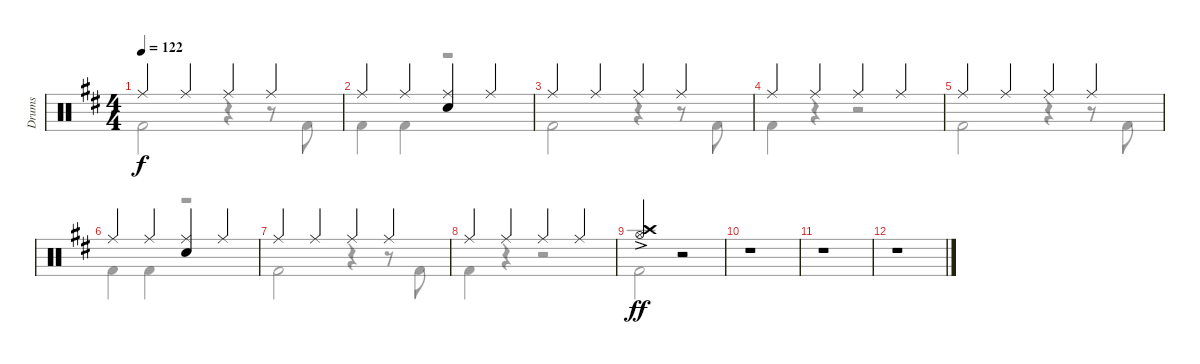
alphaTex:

\track ("Drums" "Drums") {instrument percussion}
\staff {score}
\articulation defaults
\voice
\ts (4 4)
\tempo 122
\clef neutral
\ks d "Ride (middle)".4{dy f} "Ride (middle)".4 "Ride (middle)".4 "Ride (middle)".4
|
"Ride (middle)".4 "Ride (middle)".4 ("Ride (middle)" "Electric Snare (hit)").4 "Ride (middle)".4 |
"Ride (middle)".4 "Ride (middle)".4 "Ride (middle)".4 "Ride (middle)".4 |
"Ride (middle)".4 "Ride (middle)".4 "Ride (middle)".4 "Ride (middle)".4 |
"Ride (middle)".4 "Ride (middle)".4 "Ride (middle)".4 "Ride (middle)".4 |
"Ride (middle)".4 "Ride (middle)".4 ("Ride (middle)" "Electric Snare (hit)").4 "Ride (middle)".4 |
"Ride (middle)".4 "Ride (middle)".4 "Ride (middle)".4 "Ride (middle)".4 |
"Ride (middle)".4 "Ride (middle)".4 "Ride (middle)".4 "Ride (middle)".4 |
("Crash high (hit)"{ac} "Hi-Hat (open)"{ac}).2{dy ff} r.2 |
r.1 |
r.1 |
r.1 |
|
|
|
\voice
\clef neutral
\ottava regular
\simile none
\ks d "Kick (hit) 2".2{dy f}
r.4 r.8 "Kick (hit) 2".8 |
"Kick (hit) 2".4 "Kick (hit) 2".4 r.2 |
"Kick (hit) 2".2 r.4 r.8 "Kick (hit) 2".8 |
"Kick (hit) 2".4 r.4 r.2 |
"Kick (hit) 2".2 r.4 r.8 "Kick (hit) 2".8 |
"Kick (hit) 2".4 "Kick (hit) 2".4 r.2 |
"Kick (hit) 2".2 r.4 r.8 "Kick (hit) 2".8 |
"Kick (hit) 2".4 r.4 r.2 |
"Kick (hit) 2".2 r.2 |
|
|
|
|
|
|
